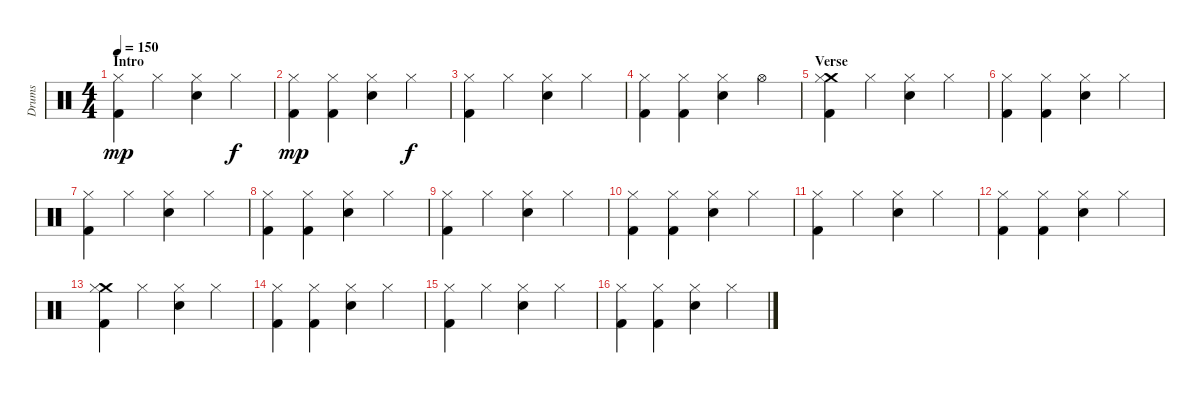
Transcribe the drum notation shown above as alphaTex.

\track ("Drums" "Drums") {instrument percussion}
\staff {score}
\articulation defaults
\ts (4 4)
\section ("" "Intro")
\tempo 150
\clef neutral
\ks c
("Kick (hit) 2" "Hi-Hat (closed)").4{dy mp} "Hi-Hat (closed)".4 ("Hi-Hat (closed)" "Snare (hit) 2").4 "Hi-Hat (closed)".4{dy f} |
("Kick (hit) 2" "Hi-Hat (closed)").4{dy mp} ("Hi-Hat (closed)" "Kick (hit) 2").4 ("Hi-Hat (closed)" "Snare (hit) 2").4 "Hi-Hat (closed)".4{dy f} |
("Kick (hit) 2" "Hi-Hat (closed)").4 "Hi-Hat (closed)".4 ("Hi-Hat (closed)" "Snare (hit) 2").4 "Hi-Hat (closed)".4 |
("Kick (hit) 2" "Hi-Hat (closed)").4 ("Hi-Hat (closed)" "Kick (hit) 2").4 ("Hi-Hat (closed)" "Snare (hit) 2").4 "Hi-Hat (open)".4 |
\section ("" "Verse")
("Kick (hit) 2" "Crash medium (hit)" "Hi-Hat (closed)").4 "Hi-Hat (closed)".4 ("Hi-Hat (closed)" "Snare (hit) 2").4 "Hi-Hat (closed)".4 |
("Kick (hit) 2" "Hi-Hat (closed)").4 ("Hi-Hat (closed)" "Kick (hit) 2").4 ("Hi-Hat (closed)" "Snare (hit) 2").4 "Hi-Hat (closed)".4 |
("Kick (hit) 2" "Hi-Hat (closed)").4 "Hi-Hat (closed)".4 ("Hi-Hat (closed)" "Snare (hit) 2").4 "Hi-Hat (closed)".4 |
("Kick (hit) 2" "Hi-Hat (closed)").4 ("Hi-Hat (closed)" "Kick (hit) 2").4 ("Hi-Hat (closed)" "Snare (hit) 2").4 "Hi-Hat (closed)".4 |
("Kick (hit) 2" "Hi-Hat (closed)").4 "Hi-Hat (closed)".4 ("Hi-Hat (closed)" "Snare (hit) 2").4 "Hi-Hat (closed)".4 |
("Kick (hit) 2" "Hi-Hat (closed)").4 ("Hi-Hat (closed)" "Kick (hit) 2").4 ("Hi-Hat (closed)" "Snare (hit) 2").4 "Hi-Hat (closed)".4 |
("Kick (hit) 2" "Hi-Hat (closed)").4 "Hi-Hat (closed)".4 ("Hi-Hat (closed)" "Snare (hit) 2").4 "Hi-Hat (closed)".4 |
("Kick (hit) 2" "Hi-Hat (closed)").4 ("Hi-Hat (closed)" "Kick (hit) 2").4 ("Hi-Hat (closed)" "Snare (hit) 2").4 "Hi-Hat (closed)".4 |
("Kick (hit) 2" "Crash medium (hit)" "Hi-Hat (closed)").4 "Hi-Hat (closed)".4 ("Hi-Hat (closed)" "Snare (hit) 2").4 "Hi-Hat (closed)".4 |
("Kick (hit) 2" "Hi-Hat (closed)").4 ("Hi-Hat (closed)" "Kick (hit) 2").4 ("Hi-Hat (closed)" "Snare (hit) 2").4 "Hi-Hat (closed)".4 |
("Kick (hit) 2" "Hi-Hat (closed)").4 "Hi-Hat (closed)".4 ("Hi-Hat (closed)" "Snare (hit) 2").4 "Hi-Hat (closed)".4 |
("Kick (hit) 2" "Hi-Hat (closed)").4 ("Hi-Hat (closed)" "Kick (hit) 2").4 ("Hi-Hat (closed)" "Snare (hit) 2").4 "Hi-Hat (closed)".4
